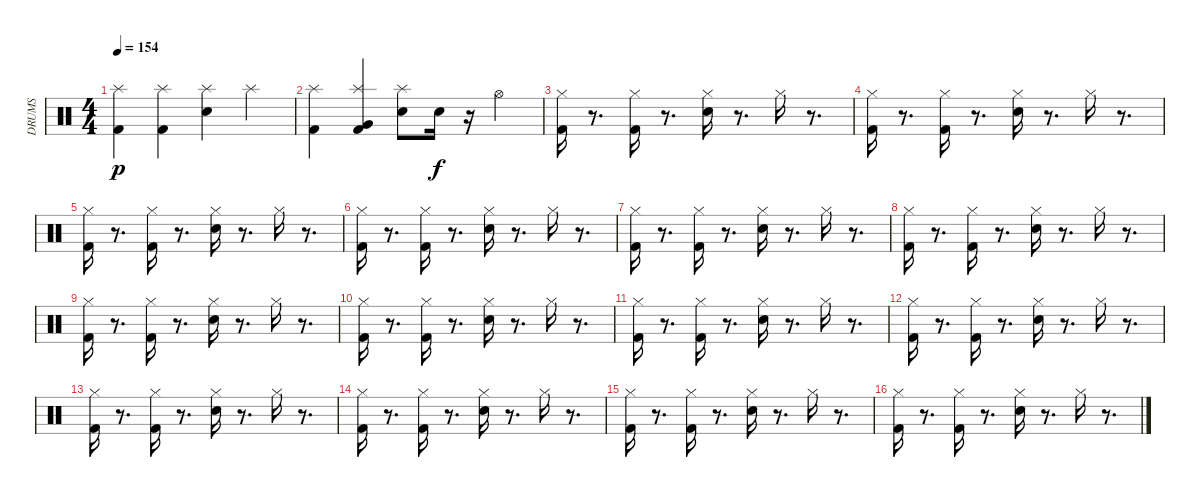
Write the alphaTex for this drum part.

\track ("DRUMS" "DRUMS") {instrument percussion}
\staff {score}
\articulation defaults
\ts (4 4)
\tempo 154
\clef neutral
\ks c
("Kick (hit) 2" "Splash (hit)").4{dy p} ("Kick (hit) 2" "Splash (hit)").4 ("Snare (hit) 2" "Splash (hit)").4 "Splash (hit)".4 |
("Kick (hit) 2" "Splash (hit)").4 ("Kick (hit) 2" "Very Low Tom (hit)" "Splash (hit)").4 ("Snare (hit) 2" "Splash (hit)").8 "Snare (hit) 2".16{dy f} r.16 "Hi-Hat (open)".4 |
("Hi-Hat (closed)" "Kick (hit) 2").16 r.8{d} ("Hi-Hat (closed)" "Kick (hit) 2").16 r.8{d} ("Hi-Hat (closed)" "Snare (hit) 2").16 r.8{d} "Hi-Hat (closed)".16 r.8{d} |
("Hi-Hat (closed)" "Kick (hit) 2").16 r.8{d} ("Hi-Hat (closed)" "Kick (hit) 2").16 r.8{d} ("Hi-Hat (closed)" "Snare (hit) 2").16 r.8{d} "Hi-Hat (closed)".16 r.8{d} |
("Hi-Hat (closed)" "Kick (hit) 2").16 r.8{d} ("Hi-Hat (closed)" "Kick (hit) 2").16 r.8{d} ("Hi-Hat (closed)" "Snare (hit) 2").16 r.8{d} "Hi-Hat (closed)".16 r.8{d} |
("Hi-Hat (closed)" "Kick (hit) 2").16 r.8{d} ("Hi-Hat (closed)" "Kick (hit) 2").16 r.8{d} ("Hi-Hat (closed)" "Snare (hit) 2").16 r.8{d} "Hi-Hat (closed)".16 r.8{d} |
("Hi-Hat (closed)" "Kick (hit) 2").16 r.8{d} ("Hi-Hat (closed)" "Kick (hit) 2").16 r.8{d} ("Hi-Hat (closed)" "Snare (hit) 2").16 r.8{d} "Hi-Hat (closed)".16 r.8{d} |
("Hi-Hat (closed)" "Kick (hit) 2").16 r.8{d} ("Hi-Hat (closed)" "Kick (hit) 2").16 r.8{d} ("Hi-Hat (closed)" "Snare (hit) 2").16 r.8{d} "Hi-Hat (closed)".16 r.8{d} |
("Hi-Hat (closed)" "Kick (hit) 2").16 r.8{d} ("Hi-Hat (closed)" "Kick (hit) 2").16 r.8{d} ("Hi-Hat (closed)" "Snare (hit) 2").16 r.8{d} "Hi-Hat (closed)".16 r.8{d} |
("Hi-Hat (closed)" "Kick (hit) 2").16 r.8{d} ("Hi-Hat (closed)" "Kick (hit) 2").16 r.8{d} ("Hi-Hat (closed)" "Snare (hit) 2").16 r.8{d} "Hi-Hat (closed)".16 r.8{d} |
("Hi-Hat (closed)" "Kick (hit) 2").16 r.8{d} ("Hi-Hat (closed)" "Kick (hit) 2").16 r.8{d} ("Hi-Hat (closed)" "Snare (hit) 2").16 r.8{d} "Hi-Hat (closed)".16 r.8{d} |
("Hi-Hat (closed)" "Kick (hit) 2").16 r.8{d} ("Hi-Hat (closed)" "Kick (hit) 2").16 r.8{d} ("Hi-Hat (closed)" "Snare (hit) 2").16 r.8{d} "Hi-Hat (closed)".16 r.8{d} |
("Hi-Hat (closed)" "Kick (hit) 2").16 r.8{d} ("Hi-Hat (closed)" "Kick (hit) 2").16 r.8{d} ("Hi-Hat (closed)" "Snare (hit) 2").16 r.8{d} "Hi-Hat (closed)".16 r.8{d} |
("Hi-Hat (closed)" "Kick (hit) 2").16 r.8{d} ("Hi-Hat (closed)" "Kick (hit) 2").16 r.8{d} ("Hi-Hat (closed)" "Snare (hit) 2").16 r.8{d} "Hi-Hat (closed)".16 r.8{d} |
("Hi-Hat (closed)" "Kick (hit) 2").16 r.8{d} ("Hi-Hat (closed)" "Kick (hit) 2").16 r.8{d} ("Hi-Hat (closed)" "Snare (hit) 2").16 r.8{d} "Hi-Hat (closed)".16 r.8{d} |
("Hi-Hat (closed)" "Kick (hit) 2").16 r.8{d} ("Hi-Hat (closed)" "Kick (hit) 2").16 r.8{d} ("Hi-Hat (closed)" "Snare (hit) 2").16 r.8{d} "Hi-Hat (closed)".16 r.8{d}
